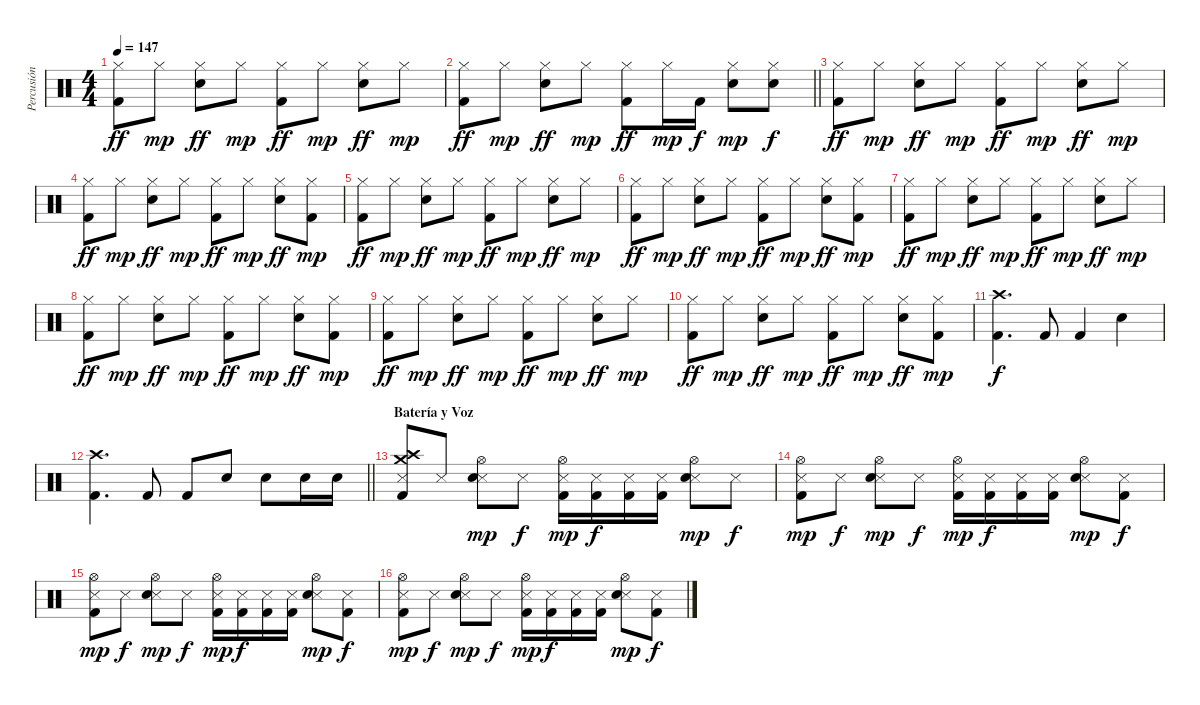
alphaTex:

\track ("Percusión" "Percusión") {instrument percussion}
\staff {score}
\articulation defaults
\ts (4 4)
\tempo 147
\clef neutral
\ks c
("Hi-Hat (closed)" "Kick (hit) 2").8{dy ff} "Hi-Hat (closed)".8{dy mp} ("Hi-Hat (closed)" "Snare (hit) 2").8{dy ff} "Hi-Hat (closed)".8{dy mp} ("Hi-Hat (closed)" "Kick (hit) 2").8{dy ff} "Hi-Hat (closed)".8{dy mp} ("Hi-Hat (closed)" "Snare (hit) 2").8{dy ff} "Hi-Hat (closed)".8{dy mp} |
\barLineRight lightlight
("Hi-Hat (closed)" "Kick (hit) 2").8{dy ff} "Hi-Hat (closed)".8{dy mp} ("Hi-Hat (closed)" "Snare (hit) 2").8{dy ff} "Hi-Hat (closed)".8{dy mp} ("Hi-Hat (closed)" "Kick (hit) 2").8{dy ff} "Hi-Hat (closed)".16{dy mp} "Kick (hit) 2".16{dy f} ("Hi-Hat (closed)" "Snare (hit) 2").8{dy mp} ("Hi-Hat (closed)" "Snare (hit) 2").8{dy f} |
("Hi-Hat (closed)" "Kick (hit) 2").8{dy ff} "Hi-Hat (closed)".8{dy mp} ("Hi-Hat (closed)" "Snare (hit) 2").8{dy ff} "Hi-Hat (closed)".8{dy mp} ("Hi-Hat (closed)" "Kick (hit) 2").8{dy ff} "Hi-Hat (closed)".8{dy mp} ("Hi-Hat (closed)" "Snare (hit) 2").8{dy ff} "Hi-Hat (closed)".8{dy mp} |
("Hi-Hat (closed)" "Kick (hit) 2").8{dy ff} "Hi-Hat (closed)".8{dy mp} ("Hi-Hat (closed)" "Snare (hit) 2").8{dy ff} "Hi-Hat (closed)".8{dy mp} ("Hi-Hat (closed)" "Kick (hit) 2").8{dy ff} "Hi-Hat (closed)".8{dy mp} ("Hi-Hat (closed)" "Snare (hit) 2").8{dy ff} ("Hi-Hat (closed)" "Kick (hit) 2").8{dy mp} |
("Hi-Hat (closed)" "Kick (hit) 2").8{dy ff} "Hi-Hat (closed)".8{dy mp} ("Hi-Hat (closed)" "Snare (hit) 2").8{dy ff} "Hi-Hat (closed)".8{dy mp} ("Hi-Hat (closed)" "Kick (hit) 2").8{dy ff} "Hi-Hat (closed)".8{dy mp} ("Hi-Hat (closed)" "Snare (hit) 2").8{dy ff} "Hi-Hat (closed)".8{dy mp} |
("Hi-Hat (closed)" "Kick (hit) 2").8{dy ff} "Hi-Hat (closed)".8{dy mp} ("Hi-Hat (closed)" "Snare (hit) 2").8{dy ff} "Hi-Hat (closed)".8{dy mp} ("Hi-Hat (closed)" "Kick (hit) 2").8{dy ff} "Hi-Hat (closed)".8{dy mp} ("Hi-Hat (closed)" "Snare (hit) 2").8{dy ff} ("Hi-Hat (closed)" "Kick (hit) 2").8{dy mp} |
("Hi-Hat (closed)" "Kick (hit) 2").8{dy ff} "Hi-Hat (closed)".8{dy mp} ("Hi-Hat (closed)" "Snare (hit) 2").8{dy ff} "Hi-Hat (closed)".8{dy mp} ("Hi-Hat (closed)" "Kick (hit) 2").8{dy ff} "Hi-Hat (closed)".8{dy mp} ("Hi-Hat (closed)" "Snare (hit) 2").8{dy ff} "Hi-Hat (closed)".8{dy mp} |
("Hi-Hat (closed)" "Kick (hit) 2").8{dy ff} "Hi-Hat (closed)".8{dy mp} ("Hi-Hat (closed)" "Snare (hit) 2").8{dy ff} "Hi-Hat (closed)".8{dy mp} ("Hi-Hat (closed)" "Kick (hit) 2").8{dy ff} "Hi-Hat (closed)".8{dy mp} ("Hi-Hat (closed)" "Snare (hit) 2").8{dy ff} ("Hi-Hat (closed)" "Kick (hit) 2").8{dy mp} |
("Hi-Hat (closed)" "Kick (hit) 2").8{dy ff} "Hi-Hat (closed)".8{dy mp} ("Hi-Hat (closed)" "Snare (hit) 2").8{dy ff} "Hi-Hat (closed)".8{dy mp} ("Hi-Hat (closed)" "Kick (hit) 2").8{dy ff} "Hi-Hat (closed)".8{dy mp} ("Hi-Hat (closed)" "Snare (hit) 2").8{dy ff} "Hi-Hat (closed)".8{dy mp} |
("Hi-Hat (closed)" "Kick (hit) 2").8{dy ff} "Hi-Hat (closed)".8{dy mp} ("Hi-Hat (closed)" "Snare (hit) 2").8{dy ff} "Hi-Hat (closed)".8{dy mp} ("Hi-Hat (closed)" "Kick (hit) 2").8{dy ff} "Hi-Hat (closed)".8{dy mp} ("Hi-Hat (closed)" "Snare (hit) 2").8{dy ff} ("Hi-Hat (closed)" "Kick (hit) 2").8{dy mp} |
("Crash high (hit)" "Kick (hit) 2").4{d dy f} "Kick (hit) 2".8 "Kick (hit) 2".4 "Snare (hit) 2".4 |
\barLineRight lightlight
("Crash high (hit)" "Kick (hit) 2").4{d} "Kick (hit) 2".8 "Kick (hit) 2".8 "Snare (hit) 2".8 "Snare (hit) 2".8 "Snare (hit) 2".16 "Snare (hit) 2".16 |
\section ("" "Batería y Voz")
("Crash high (hit)" "Crash medium (hit)" "Snare (side stick) 3" "Kick (hit) 2").8 "Snare (side stick) 3".8 ("Hi-Hat (open)" "Snare (side stick) 3" "Snare (hit) 2").8{dy mp} "Snare (side stick) 3".8{dy f} ("Hi-Hat (open)" "Snare (side stick) 3" "Kick (hit) 2").16{dy mp} ("Snare (side stick) 3" "Kick (hit) 2").16{dy f} ("Snare (side stick) 3" "Kick (hit) 2").16 ("Snare (side stick) 3" "Kick (hit) 2").16 ("Hi-Hat (open)" "Snare (side stick) 3" "Snare (hit) 2").8{dy mp} "Snare (side stick) 3".8{dy f} |
("Hi-Hat (open)" "Snare (side stick) 3" "Kick (hit) 2").8{dy mp} "Snare (side stick) 3".8{dy f} ("Hi-Hat (open)" "Snare (side stick) 3" "Snare (hit) 2").8{dy mp} "Snare (side stick) 3".8{dy f} ("Hi-Hat (open)" "Snare (side stick) 3" "Kick (hit) 2").16{dy mp} ("Snare (side stick) 3" "Kick (hit) 2").16{dy f} ("Snare (side stick) 3" "Kick (hit) 2").16 ("Snare (side stick) 3" "Kick (hit) 2").16 ("Hi-Hat (open)" "Snare (side stick) 3" "Snare (hit) 2").8{dy mp} ("Snare (side stick) 3" "Kick (hit) 2").8{dy f} |
("Hi-Hat (open)" "Snare (side stick) 3" "Kick (hit) 2").8{dy mp} "Snare (side stick) 3".8{dy f} ("Hi-Hat (open)" "Snare (side stick) 3" "Snare (hit) 2").8{dy mp} "Snare (side stick) 3".8{dy f} ("Hi-Hat (open)" "Snare (side stick) 3" "Kick (hit) 2").16{dy mp} ("Snare (side stick) 3" "Kick (hit) 2").16{dy f} ("Snare (side stick) 3" "Kick (hit) 2").16 ("Snare (side stick) 3" "Kick (hit) 2").16 ("Hi-Hat (open)" "Snare (side stick) 3" "Snare (hit) 2").8{dy mp} ("Snare (side stick) 3" "Kick (hit) 2").8{dy f} |
("Hi-Hat (open)" "Snare (side stick) 3" "Kick (hit) 2").8{dy mp} "Snare (side stick) 3".8{dy f} ("Hi-Hat (open)" "Snare (side stick) 3" "Snare (hit) 2").8{dy mp} "Snare (side stick) 3".8{dy f} ("Hi-Hat (open)" "Snare (side stick) 3" "Kick (hit) 2").16{dy mp} ("Snare (side stick) 3" "Kick (hit) 2").16{dy f} ("Snare (side stick) 3" "Kick (hit) 2").16 ("Snare (side stick) 3" "Kick (hit) 2").16 ("Hi-Hat (open)" "Snare (side stick) 3" "Snare (hit) 2").8{dy mp} ("Snare (side stick) 3" "Kick (hit) 2").8{dy f}
